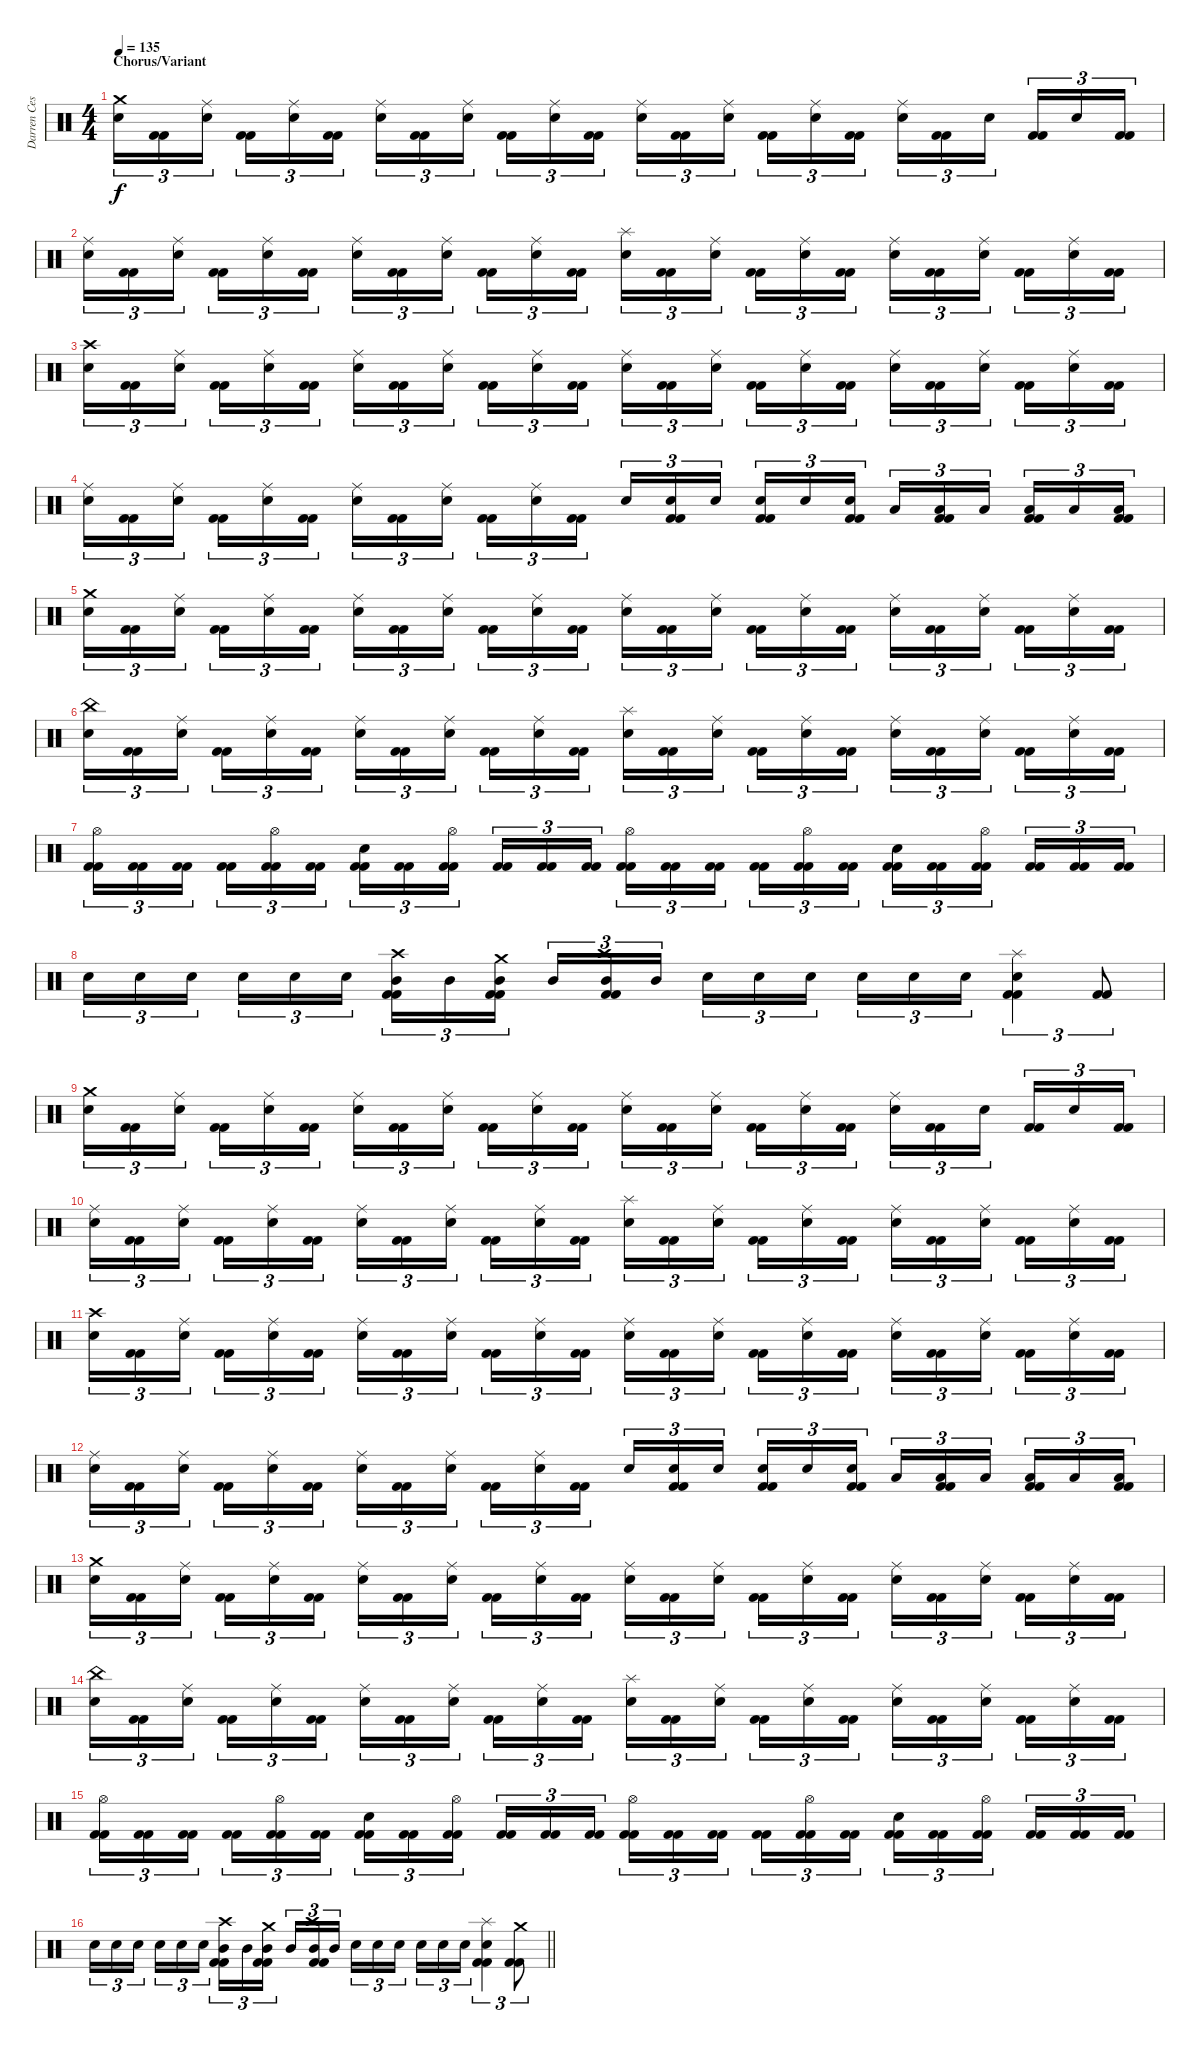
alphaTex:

\track ("Darren Cesca" "Darren Ces") {instrument percussion}
\staff {score}
\articulation defaults
\ts (4 4)
\section ("" "Chorus/Variant")
\tempo 135
\clef neutral
\ks c
("Crash medium (hit)" "Electric Snare (hit)").16{tu (3 2) dy f} ("Kick (hit) 2" "Kick (hit) 2").16{tu (3 2)} ("Ride (middle)" "Electric Snare (hit)").16{tu (3 2) beam splitsecondary} ("Kick (hit) 2" "Kick (hit) 2").16{tu (3 2)} ("Ride (middle)" "Electric Snare (hit)").16{tu (3 2)} ("Kick (hit) 2" "Kick (hit) 2").16{tu (3 2)} ("Ride (middle)" "Electric Snare (hit)").16{tu (3 2)} ("Kick (hit) 2" "Kick (hit) 2").16{tu (3 2)} ("Ride (middle)" "Electric Snare (hit)").16{tu (3 2) beam splitsecondary} ("Kick (hit) 2" "Kick (hit) 2").16{tu (3 2)} ("Ride (middle)" "Electric Snare (hit)").16{tu (3 2)} ("Kick (hit) 2" "Kick (hit) 2").16{tu (3 2)} ("Ride (middle)" "Electric Snare (hit)").16{tu (3 2)} ("Kick (hit) 2" "Kick (hit) 2").16{tu (3 2)} ("Ride (middle)" "Electric Snare (hit)").16{tu (3 2) beam splitsecondary} ("Kick (hit) 2" "Kick (hit) 2").16{tu (3 2)} ("Ride (middle)" "Electric Snare (hit)").16{tu (3 2)} ("Kick (hit) 2" "Kick (hit) 2").16{tu (3 2)} ("Ride (middle)" "Electric Snare (hit)").16{tu (3 2)} ("Kick (hit) 2" "Kick (hit) 2").16{tu (3 2)} "Electric Snare (hit)".16{tu (3 2) beam splitsecondary} ("Kick (hit) 2" "Kick (hit) 2").16{tu (3 2)} "Electric Snare (hit)".16{tu (3 2)} ("Kick (hit) 2" "Kick (hit) 2").16{tu (3 2)} |
("Ride (middle)" "Electric Snare (hit)").16{tu (3 2)} ("Kick (hit) 2" "Kick (hit) 2").16{tu (3 2)} ("Ride (middle)" "Electric Snare (hit)").16{tu (3 2) beam splitsecondary} ("Kick (hit) 2" "Kick (hit) 2").16{tu (3 2)} ("Ride (middle)" "Electric Snare (hit)").16{tu (3 2)} ("Kick (hit) 2" "Kick (hit) 2").16{tu (3 2)} ("Ride (middle)" "Electric Snare (hit)").16{tu (3 2)} ("Kick (hit) 2" "Kick (hit) 2").16{tu (3 2)} ("Ride (middle)" "Electric Snare (hit)").16{tu (3 2) beam splitsecondary} ("Kick (hit) 2" "Kick (hit) 2").16{tu (3 2)} ("Ride (middle)" "Electric Snare (hit)").16{tu (3 2)} ("Kick (hit) 2" "Kick (hit) 2").16{tu (3 2)} ("Splash (hit)" "Electric Snare (hit)").16{tu (3 2)} ("Kick (hit) 2" "Kick (hit) 2").16{tu (3 2)} ("Ride (middle)" "Electric Snare (hit)").16{tu (3 2) beam splitsecondary} ("Kick (hit) 2" "Kick (hit) 2").16{tu (3 2)} ("Ride (middle)" "Electric Snare (hit)").16{tu (3 2)} ("Kick (hit) 2" "Kick (hit) 2").16{tu (3 2)} ("Ride (middle)" "Electric Snare (hit)").16{tu (3 2)} ("Kick (hit) 2" "Kick (hit) 2").16{tu (3 2)} ("Ride (middle)" "Electric Snare (hit)").16{tu (3 2) beam splitsecondary} ("Kick (hit) 2" "Kick (hit) 2").16{tu (3 2)} ("Ride (middle)" "Electric Snare (hit)").16{tu (3 2)} ("Kick (hit) 2" "Kick (hit) 2").16{tu (3 2)} |
("Crash high (hit)" "Electric Snare (hit)").16{tu (3 2)} ("Kick (hit) 2" "Kick (hit) 2").16{tu (3 2)} ("Ride (middle)" "Electric Snare (hit)").16{tu (3 2) beam splitsecondary} ("Kick (hit) 2" "Kick (hit) 2").16{tu (3 2)} ("Ride (middle)" "Electric Snare (hit)").16{tu (3 2)} ("Kick (hit) 2" "Kick (hit) 2").16{tu (3 2)} ("Ride (middle)" "Electric Snare (hit)").16{tu (3 2)} ("Kick (hit) 2" "Kick (hit) 2").16{tu (3 2)} ("Ride (middle)" "Electric Snare (hit)").16{tu (3 2) beam splitsecondary} ("Kick (hit) 2" "Kick (hit) 2").16{tu (3 2)} ("Ride (middle)" "Electric Snare (hit)").16{tu (3 2)} ("Kick (hit) 2" "Kick (hit) 2").16{tu (3 2)} ("Ride (middle)" "Electric Snare (hit)").16{tu (3 2)} ("Kick (hit) 2" "Kick (hit) 2").16{tu (3 2)} ("Ride (middle)" "Electric Snare (hit)").16{tu (3 2) beam splitsecondary} ("Kick (hit) 2" "Kick (hit) 2").16{tu (3 2)} ("Ride (middle)" "Electric Snare (hit)").16{tu (3 2)} ("Kick (hit) 2" "Kick (hit) 2").16{tu (3 2)} ("Ride (middle)" "Electric Snare (hit)").16{tu (3 2)} ("Kick (hit) 2" "Kick (hit) 2").16{tu (3 2)} ("Ride (middle)" "Electric Snare (hit)").16{tu (3 2) beam splitsecondary} ("Kick (hit) 2" "Kick (hit) 2").16{tu (3 2)} ("Ride (middle)" "Electric Snare (hit)").16{tu (3 2)} ("Kick (hit) 2" "Kick (hit) 2").16{tu (3 2)} |
("Ride (middle)" "Electric Snare (hit)").16{tu (3 2)} ("Kick (hit) 2" "Kick (hit) 2").16{tu (3 2)} ("Ride (middle)" "Electric Snare (hit)").16{tu (3 2) beam splitsecondary} ("Kick (hit) 2" "Kick (hit) 2").16{tu (3 2)} ("Ride (middle)" "Electric Snare (hit)").16{tu (3 2)} ("Kick (hit) 2" "Kick (hit) 2").16{tu (3 2)} ("Ride (middle)" "Electric Snare (hit)").16{tu (3 2)} ("Kick (hit) 2" "Kick (hit) 2").16{tu (3 2)} ("Ride (middle)" "Electric Snare (hit)").16{tu (3 2) beam splitsecondary} ("Kick (hit) 2" "Kick (hit) 2").16{tu (3 2)} ("Ride (middle)" "Electric Snare (hit)").16{tu (3 2)} ("Kick (hit) 2" "Kick (hit) 2").16{tu (3 2)} "Electric Snare (hit)".16{tu (3 2)} ("Electric Snare (hit)" "Kick (hit) 2" "Kick (hit) 2").16{tu (3 2)} "Electric Snare (hit)".16{tu (3 2) beam splitsecondary} ("Electric Snare (hit)" "Kick (hit) 2" "Kick (hit) 2").16{tu (3 2)} "Electric Snare (hit)".16{tu (3 2)} ("Electric Snare (hit)" "Kick (hit) 2" "Kick (hit) 2").16{tu (3 2)} "Low Tom (hit)".16{tu (3 2)} ("Low Tom (hit)" "Kick (hit) 2" "Kick (hit) 2").16{tu (3 2)} "Low Tom (hit)".16{tu (3 2) beam splitsecondary} ("Low Tom (hit)" "Kick (hit) 2" "Kick (hit) 2").16{tu (3 2)} "Low Tom (hit)".16{tu (3 2)} ("Low Tom (hit)" "Kick (hit) 2" "Kick (hit) 2").16{tu (3 2)} |
("Crash medium (hit)" "Electric Snare (hit)").16{tu (3 2)} ("Kick (hit) 2" "Kick (hit) 2").16{tu (3 2)} ("Ride (middle)" "Electric Snare (hit)").16{tu (3 2) beam splitsecondary} ("Kick (hit) 2" "Kick (hit) 2").16{tu (3 2)} ("Ride (middle)" "Electric Snare (hit)").16{tu (3 2)} ("Kick (hit) 2" "Kick (hit) 2").16{tu (3 2)} ("Ride (middle)" "Electric Snare (hit)").16{tu (3 2)} ("Kick (hit) 2" "Kick (hit) 2").16{tu (3 2)} ("Ride (middle)" "Electric Snare (hit)").16{tu (3 2) beam splitsecondary} ("Kick (hit) 2" "Kick (hit) 2").16{tu (3 2)} ("Ride (middle)" "Electric Snare (hit)").16{tu (3 2)} ("Kick (hit) 2" "Kick (hit) 2").16{tu (3 2)} ("Ride (middle)" "Electric Snare (hit)").16{tu (3 2)} ("Kick (hit) 2" "Kick (hit) 2").16{tu (3 2)} ("Ride (middle)" "Electric Snare (hit)").16{tu (3 2) beam splitsecondary} ("Kick (hit) 2" "Kick (hit) 2").16{tu (3 2)} ("Ride (middle)" "Electric Snare (hit)").16{tu (3 2)} ("Kick (hit) 2" "Kick (hit) 2").16{tu (3 2)} ("Ride (middle)" "Electric Snare (hit)").16{tu (3 2)} ("Kick (hit) 2" "Kick (hit) 2").16{tu (3 2)} ("Ride (middle)" "Electric Snare (hit)").16{tu (3 2) beam splitsecondary} ("Kick (hit) 2" "Kick (hit) 2").16{tu (3 2)} ("Ride (middle)" "Electric Snare (hit)").16{tu (3 2)} ("Kick (hit) 2" "Kick (hit) 2").16{tu (3 2)} |
("China (hit)" "Electric Snare (hit)").16{tu (3 2)} ("Kick (hit) 2" "Kick (hit) 2").16{tu (3 2)} ("Ride (middle)" "Electric Snare (hit)").16{tu (3 2) beam splitsecondary} ("Kick (hit) 2" "Kick (hit) 2").16{tu (3 2)} ("Ride (middle)" "Electric Snare (hit)").16{tu (3 2)} ("Kick (hit) 2" "Kick (hit) 2").16{tu (3 2)} ("Ride (middle)" "Electric Snare (hit)").16{tu (3 2)} ("Kick (hit) 2" "Kick (hit) 2").16{tu (3 2)} ("Ride (middle)" "Electric Snare (hit)").16{tu (3 2) beam splitsecondary} ("Kick (hit) 2" "Kick (hit) 2").16{tu (3 2)} ("Ride (middle)" "Electric Snare (hit)").16{tu (3 2)} ("Kick (hit) 2" "Kick (hit) 2").16{tu (3 2)} ("Splash (hit)" "Electric Snare (hit)").16{tu (3 2)} ("Kick (hit) 2" "Kick (hit) 2").16{tu (3 2)} ("Ride (middle)" "Electric Snare (hit)").16{tu (3 2) beam splitsecondary} ("Kick (hit) 2" "Kick (hit) 2").16{tu (3 2)} ("Ride (middle)" "Electric Snare (hit)").16{tu (3 2)} ("Kick (hit) 2" "Kick (hit) 2").16{tu (3 2)} ("Ride (middle)" "Electric Snare (hit)").16{tu (3 2)} ("Kick (hit) 2" "Kick (hit) 2").16{tu (3 2)} ("Ride (middle)" "Electric Snare (hit)").16{tu (3 2) beam splitsecondary} ("Kick (hit) 2" "Kick (hit) 2").16{tu (3 2)} ("Ride (middle)" "Electric Snare (hit)").16{tu (3 2)} ("Kick (hit) 2" "Kick (hit) 2").16{tu (3 2)} |
("Hi-Hat (open)" "Kick (hit) 2" "Kick (hit) 2").16{tu (3 2)} ("Kick (hit) 2" "Kick (hit) 2").16{tu (3 2)} ("Kick (hit) 2" "Kick (hit) 2").16{tu (3 2) beam splitsecondary} ("Kick (hit) 2" "Kick (hit) 2").16{tu (3 2)} ("Hi-Hat (open)" "Kick (hit) 2" "Kick (hit) 2").16{tu (3 2)} ("Kick (hit) 2" "Kick (hit) 2").16{tu (3 2)} ("Electric Snare (hit)" "Kick (hit) 2" "Kick (hit) 2").16{tu (3 2)} ("Kick (hit) 2" "Kick (hit) 2").16{tu (3 2)} ("Hi-Hat (open)" "Kick (hit) 2" "Kick (hit) 2").16{tu (3 2) beam splitsecondary} ("Kick (hit) 2" "Kick (hit) 2").16{tu (3 2)} ("Kick (hit) 2" "Kick (hit) 2").16{tu (3 2)} ("Kick (hit) 2" "Kick (hit) 2").16{tu (3 2)} ("Hi-Hat (open)" "Kick (hit) 2" "Kick (hit) 2").16{tu (3 2)} ("Kick (hit) 2" "Kick (hit) 2").16{tu (3 2)} ("Kick (hit) 2" "Kick (hit) 2").16{tu (3 2) beam splitsecondary} ("Kick (hit) 2" "Kick (hit) 2").16{tu (3 2)} ("Hi-Hat (open)" "Kick (hit) 2" "Kick (hit) 2").16{tu (3 2)} ("Kick (hit) 2" "Kick (hit) 2").16{tu (3 2)} ("Electric Snare (hit)" "Kick (hit) 2" "Kick (hit) 2").16{tu (3 2)} ("Kick (hit) 2" "Kick (hit) 2").16{tu (3 2)} ("Hi-Hat (open)" "Kick (hit) 2" "Kick (hit) 2").16{tu (3 2) beam splitsecondary} ("Kick (hit) 2" "Kick (hit) 2").16{tu (3 2)} ("Kick (hit) 2" "Kick (hit) 2").16{tu (3 2)} ("Kick (hit) 2" "Kick (hit) 2").16{tu (3 2)} |
"Electric Snare (hit)".16{tu (3 2)} "Electric Snare (hit)".16{tu (3 2)} "Electric Snare (hit)".16{tu (3 2) beam splitsecondary} "Electric Snare (hit)".16{tu (3 2)} "Electric Snare (hit)".16{tu (3 2)} "Electric Snare (hit)".16{tu (3 2)} ("Crash high (hit)" "Mid Tom (hit)" "Kick (hit) 2" "Kick (hit) 2").16{tu (3 2)} "Mid Tom (hit)".16{tu (3 2)} ("Crash medium (hit)" "Mid Tom (hit)" "Kick (hit) 2" "Kick (hit) 2").16{tu (3 2) beam splitsecondary} "Mid Tom (hit)".16{tu (3 2)} ("Crash high (hit)" "Mid Tom (hit)" "Kick (hit) 2" "Kick (hit) 2").16{tu (3 2)} "Mid Tom (hit)".16{tu (3 2)} "Electric Snare (hit)".16{tu (3 2)} "Electric Snare (hit)".16{tu (3 2)} "Electric Snare (hit)".16{tu (3 2) beam splitsecondary} "Electric Snare (hit)".16{tu (3 2)} "Electric Snare (hit)".16{tu (3 2)} "Electric Snare (hit)".16{tu (3 2)} ("Splash (hit)" "Electric Snare (hit)" "Kick (hit) 2" "Kick (hit) 2").4{tu (3 2)} ("Kick (hit) 2" "Kick (hit) 2").8{tu (3 2)} |
("Crash medium (hit)" "Electric Snare (hit)").16{tu (3 2)} ("Kick (hit) 2" "Kick (hit) 2").16{tu (3 2)} ("Ride (middle)" "Electric Snare (hit)").16{tu (3 2) beam splitsecondary} ("Kick (hit) 2" "Kick (hit) 2").16{tu (3 2)} ("Ride (middle)" "Electric Snare (hit)").16{tu (3 2)} ("Kick (hit) 2" "Kick (hit) 2").16{tu (3 2)} ("Ride (middle)" "Electric Snare (hit)").16{tu (3 2)} ("Kick (hit) 2" "Kick (hit) 2").16{tu (3 2)} ("Ride (middle)" "Electric Snare (hit)").16{tu (3 2) beam splitsecondary} ("Kick (hit) 2" "Kick (hit) 2").16{tu (3 2)} ("Ride (middle)" "Electric Snare (hit)").16{tu (3 2)} ("Kick (hit) 2" "Kick (hit) 2").16{tu (3 2)} ("Ride (middle)" "Electric Snare (hit)").16{tu (3 2)} ("Kick (hit) 2" "Kick (hit) 2").16{tu (3 2)} ("Ride (middle)" "Electric Snare (hit)").16{tu (3 2) beam splitsecondary} ("Kick (hit) 2" "Kick (hit) 2").16{tu (3 2)} ("Ride (middle)" "Electric Snare (hit)").16{tu (3 2)} ("Kick (hit) 2" "Kick (hit) 2").16{tu (3 2)} ("Ride (middle)" "Electric Snare (hit)").16{tu (3 2)} ("Kick (hit) 2" "Kick (hit) 2").16{tu (3 2)} "Electric Snare (hit)".16{tu (3 2) beam splitsecondary} ("Kick (hit) 2" "Kick (hit) 2").16{tu (3 2)} "Electric Snare (hit)".16{tu (3 2)} ("Kick (hit) 2" "Kick (hit) 2").16{tu (3 2)} |
("Ride (middle)" "Electric Snare (hit)").16{tu (3 2)} ("Kick (hit) 2" "Kick (hit) 2").16{tu (3 2)} ("Ride (middle)" "Electric Snare (hit)").16{tu (3 2) beam splitsecondary} ("Kick (hit) 2" "Kick (hit) 2").16{tu (3 2)} ("Ride (middle)" "Electric Snare (hit)").16{tu (3 2)} ("Kick (hit) 2" "Kick (hit) 2").16{tu (3 2)} ("Ride (middle)" "Electric Snare (hit)").16{tu (3 2)} ("Kick (hit) 2" "Kick (hit) 2").16{tu (3 2)} ("Ride (middle)" "Electric Snare (hit)").16{tu (3 2) beam splitsecondary} ("Kick (hit) 2" "Kick (hit) 2").16{tu (3 2)} ("Ride (middle)" "Electric Snare (hit)").16{tu (3 2)} ("Kick (hit) 2" "Kick (hit) 2").16{tu (3 2)} ("Splash (hit)" "Electric Snare (hit)").16{tu (3 2)} ("Kick (hit) 2" "Kick (hit) 2").16{tu (3 2)} ("Ride (middle)" "Electric Snare (hit)").16{tu (3 2) beam splitsecondary} ("Kick (hit) 2" "Kick (hit) 2").16{tu (3 2)} ("Ride (middle)" "Electric Snare (hit)").16{tu (3 2)} ("Kick (hit) 2" "Kick (hit) 2").16{tu (3 2)} ("Ride (middle)" "Electric Snare (hit)").16{tu (3 2)} ("Kick (hit) 2" "Kick (hit) 2").16{tu (3 2)} ("Ride (middle)" "Electric Snare (hit)").16{tu (3 2) beam splitsecondary} ("Kick (hit) 2" "Kick (hit) 2").16{tu (3 2)} ("Ride (middle)" "Electric Snare (hit)").16{tu (3 2)} ("Kick (hit) 2" "Kick (hit) 2").16{tu (3 2)} |
("Crash high (hit)" "Electric Snare (hit)").16{tu (3 2)} ("Kick (hit) 2" "Kick (hit) 2").16{tu (3 2)} ("Ride (middle)" "Electric Snare (hit)").16{tu (3 2) beam splitsecondary} ("Kick (hit) 2" "Kick (hit) 2").16{tu (3 2)} ("Ride (middle)" "Electric Snare (hit)").16{tu (3 2)} ("Kick (hit) 2" "Kick (hit) 2").16{tu (3 2)} ("Ride (middle)" "Electric Snare (hit)").16{tu (3 2)} ("Kick (hit) 2" "Kick (hit) 2").16{tu (3 2)} ("Ride (middle)" "Electric Snare (hit)").16{tu (3 2) beam splitsecondary} ("Kick (hit) 2" "Kick (hit) 2").16{tu (3 2)} ("Ride (middle)" "Electric Snare (hit)").16{tu (3 2)} ("Kick (hit) 2" "Kick (hit) 2").16{tu (3 2)} ("Ride (middle)" "Electric Snare (hit)").16{tu (3 2)} ("Kick (hit) 2" "Kick (hit) 2").16{tu (3 2)} ("Ride (middle)" "Electric Snare (hit)").16{tu (3 2) beam splitsecondary} ("Kick (hit) 2" "Kick (hit) 2").16{tu (3 2)} ("Ride (middle)" "Electric Snare (hit)").16{tu (3 2)} ("Kick (hit) 2" "Kick (hit) 2").16{tu (3 2)} ("Ride (middle)" "Electric Snare (hit)").16{tu (3 2)} ("Kick (hit) 2" "Kick (hit) 2").16{tu (3 2)} ("Ride (middle)" "Electric Snare (hit)").16{tu (3 2) beam splitsecondary} ("Kick (hit) 2" "Kick (hit) 2").16{tu (3 2)} ("Ride (middle)" "Electric Snare (hit)").16{tu (3 2)} ("Kick (hit) 2" "Kick (hit) 2").16{tu (3 2)} |
("Ride (middle)" "Electric Snare (hit)").16{tu (3 2)} ("Kick (hit) 2" "Kick (hit) 2").16{tu (3 2)} ("Ride (middle)" "Electric Snare (hit)").16{tu (3 2) beam splitsecondary} ("Kick (hit) 2" "Kick (hit) 2").16{tu (3 2)} ("Ride (middle)" "Electric Snare (hit)").16{tu (3 2)} ("Kick (hit) 2" "Kick (hit) 2").16{tu (3 2)} ("Ride (middle)" "Electric Snare (hit)").16{tu (3 2)} ("Kick (hit) 2" "Kick (hit) 2").16{tu (3 2)} ("Ride (middle)" "Electric Snare (hit)").16{tu (3 2) beam splitsecondary} ("Kick (hit) 2" "Kick (hit) 2").16{tu (3 2)} ("Ride (middle)" "Electric Snare (hit)").16{tu (3 2)} ("Kick (hit) 2" "Kick (hit) 2").16{tu (3 2)} "Electric Snare (hit)".16{tu (3 2)} ("Electric Snare (hit)" "Kick (hit) 2" "Kick (hit) 2").16{tu (3 2)} "Electric Snare (hit)".16{tu (3 2) beam splitsecondary} ("Electric Snare (hit)" "Kick (hit) 2" "Kick (hit) 2").16{tu (3 2)} "Electric Snare (hit)".16{tu (3 2)} ("Electric Snare (hit)" "Kick (hit) 2" "Kick (hit) 2").16{tu (3 2)} "Low Tom (hit)".16{tu (3 2)} ("Low Tom (hit)" "Kick (hit) 2" "Kick (hit) 2").16{tu (3 2)} "Low Tom (hit)".16{tu (3 2) beam splitsecondary} ("Low Tom (hit)" "Kick (hit) 2" "Kick (hit) 2").16{tu (3 2)} "Low Tom (hit)".16{tu (3 2)} ("Low Tom (hit)" "Kick (hit) 2" "Kick (hit) 2").16{tu (3 2)} |
("Crash medium (hit)" "Electric Snare (hit)").16{tu (3 2)} ("Kick (hit) 2" "Kick (hit) 2").16{tu (3 2)} ("Ride (middle)" "Electric Snare (hit)").16{tu (3 2) beam splitsecondary} ("Kick (hit) 2" "Kick (hit) 2").16{tu (3 2)} ("Ride (middle)" "Electric Snare (hit)").16{tu (3 2)} ("Kick (hit) 2" "Kick (hit) 2").16{tu (3 2)} ("Ride (middle)" "Electric Snare (hit)").16{tu (3 2)} ("Kick (hit) 2" "Kick (hit) 2").16{tu (3 2)} ("Ride (middle)" "Electric Snare (hit)").16{tu (3 2) beam splitsecondary} ("Kick (hit) 2" "Kick (hit) 2").16{tu (3 2)} ("Ride (middle)" "Electric Snare (hit)").16{tu (3 2)} ("Kick (hit) 2" "Kick (hit) 2").16{tu (3 2)} ("Ride (middle)" "Electric Snare (hit)").16{tu (3 2)} ("Kick (hit) 2" "Kick (hit) 2").16{tu (3 2)} ("Ride (middle)" "Electric Snare (hit)").16{tu (3 2) beam splitsecondary} ("Kick (hit) 2" "Kick (hit) 2").16{tu (3 2)} ("Ride (middle)" "Electric Snare (hit)").16{tu (3 2)} ("Kick (hit) 2" "Kick (hit) 2").16{tu (3 2)} ("Ride (middle)" "Electric Snare (hit)").16{tu (3 2)} ("Kick (hit) 2" "Kick (hit) 2").16{tu (3 2)} ("Ride (middle)" "Electric Snare (hit)").16{tu (3 2) beam splitsecondary} ("Kick (hit) 2" "Kick (hit) 2").16{tu (3 2)} ("Ride (middle)" "Electric Snare (hit)").16{tu (3 2)} ("Kick (hit) 2" "Kick (hit) 2").16{tu (3 2)} |
("China (hit)" "Electric Snare (hit)").16{tu (3 2)} ("Kick (hit) 2" "Kick (hit) 2").16{tu (3 2)} ("Ride (middle)" "Electric Snare (hit)").16{tu (3 2) beam splitsecondary} ("Kick (hit) 2" "Kick (hit) 2").16{tu (3 2)} ("Ride (middle)" "Electric Snare (hit)").16{tu (3 2)} ("Kick (hit) 2" "Kick (hit) 2").16{tu (3 2)} ("Ride (middle)" "Electric Snare (hit)").16{tu (3 2)} ("Kick (hit) 2" "Kick (hit) 2").16{tu (3 2)} ("Ride (middle)" "Electric Snare (hit)").16{tu (3 2) beam splitsecondary} ("Kick (hit) 2" "Kick (hit) 2").16{tu (3 2)} ("Ride (middle)" "Electric Snare (hit)").16{tu (3 2)} ("Kick (hit) 2" "Kick (hit) 2").16{tu (3 2)} ("Splash (hit)" "Electric Snare (hit)").16{tu (3 2)} ("Kick (hit) 2" "Kick (hit) 2").16{tu (3 2)} ("Ride (middle)" "Electric Snare (hit)").16{tu (3 2) beam splitsecondary} ("Kick (hit) 2" "Kick (hit) 2").16{tu (3 2)} ("Ride (middle)" "Electric Snare (hit)").16{tu (3 2)} ("Kick (hit) 2" "Kick (hit) 2").16{tu (3 2)} ("Ride (middle)" "Electric Snare (hit)").16{tu (3 2)} ("Kick (hit) 2" "Kick (hit) 2").16{tu (3 2)} ("Ride (middle)" "Electric Snare (hit)").16{tu (3 2) beam splitsecondary} ("Kick (hit) 2" "Kick (hit) 2").16{tu (3 2)} ("Ride (middle)" "Electric Snare (hit)").16{tu (3 2)} ("Kick (hit) 2" "Kick (hit) 2").16{tu (3 2)} |
("Hi-Hat (open)" "Kick (hit) 2" "Kick (hit) 2").16{tu (3 2)} ("Kick (hit) 2" "Kick (hit) 2").16{tu (3 2)} ("Kick (hit) 2" "Kick (hit) 2").16{tu (3 2) beam splitsecondary} ("Kick (hit) 2" "Kick (hit) 2").16{tu (3 2)} ("Hi-Hat (open)" "Kick (hit) 2" "Kick (hit) 2").16{tu (3 2)} ("Kick (hit) 2" "Kick (hit) 2").16{tu (3 2)} ("Electric Snare (hit)" "Kick (hit) 2" "Kick (hit) 2").16{tu (3 2)} ("Kick (hit) 2" "Kick (hit) 2").16{tu (3 2)} ("Hi-Hat (open)" "Kick (hit) 2" "Kick (hit) 2").16{tu (3 2) beam splitsecondary} ("Kick (hit) 2" "Kick (hit) 2").16{tu (3 2)} ("Kick (hit) 2" "Kick (hit) 2").16{tu (3 2)} ("Kick (hit) 2" "Kick (hit) 2").16{tu (3 2)} ("Hi-Hat (open)" "Kick (hit) 2" "Kick (hit) 2").16{tu (3 2)} ("Kick (hit) 2" "Kick (hit) 2").16{tu (3 2)} ("Kick (hit) 2" "Kick (hit) 2").16{tu (3 2) beam splitsecondary} ("Kick (hit) 2" "Kick (hit) 2").16{tu (3 2)} ("Hi-Hat (open)" "Kick (hit) 2" "Kick (hit) 2").16{tu (3 2)} ("Kick (hit) 2" "Kick (hit) 2").16{tu (3 2)} ("Electric Snare (hit)" "Kick (hit) 2" "Kick (hit) 2").16{tu (3 2)} ("Kick (hit) 2" "Kick (hit) 2").16{tu (3 2)} ("Hi-Hat (open)" "Kick (hit) 2" "Kick (hit) 2").16{tu (3 2) beam splitsecondary} ("Kick (hit) 2" "Kick (hit) 2").16{tu (3 2)} ("Kick (hit) 2" "Kick (hit) 2").16{tu (3 2)} ("Kick (hit) 2" "Kick (hit) 2").16{tu (3 2)} |
\barLineRight lightlight "Electric Snare (hit)".16{tu (3 2)} "Electric Snare (hit)".16{tu (3 2)} "Electric Snare (hit)".16{tu (3 2) beam splitsecondary} "Electric Snare (hit)".16{tu (3 2)} "Electric Snare (hit)".16{tu (3 2)} "Electric Snare (hit)".16{tu (3 2)}
("Crash high (hit)" "Mid Tom (hit)" "Kick (hit) 2" "Kick (hit) 2").16{tu (3 2)} "Mid Tom (hit)".16{tu (3 2)} ("Crash medium (hit)" "Mid Tom (hit)" "Kick (hit) 2" "Kick (hit) 2").16{tu (3 2) beam splitsecondary} "Mid Tom (hit)".16{tu (3 2)} ("Crash high (hit)" "Mid Tom (hit)" "Kick (hit) 2" "Kick (hit) 2").16{tu (3 2)} "Mid Tom (hit)".16{tu (3 2)} "Electric Snare (hit)".16{tu (3 2)} "Electric Snare (hit)".16{tu (3 2)} "Electric Snare (hit)".16{tu (3 2) beam splitsecondary} "Electric Snare (hit)".16{tu (3 2)} "Electric Snare (hit)".16{tu (3 2)} "Electric Snare (hit)".16{tu (3 2)} ("Splash (hit)" "Electric Snare (hit)" "Kick (hit) 2" "Kick (hit) 2").4{tu (3 2)} ("Crash medium (hit)" "Kick (hit) 2" "Kick (hit) 2").8{tu (3 2)}
